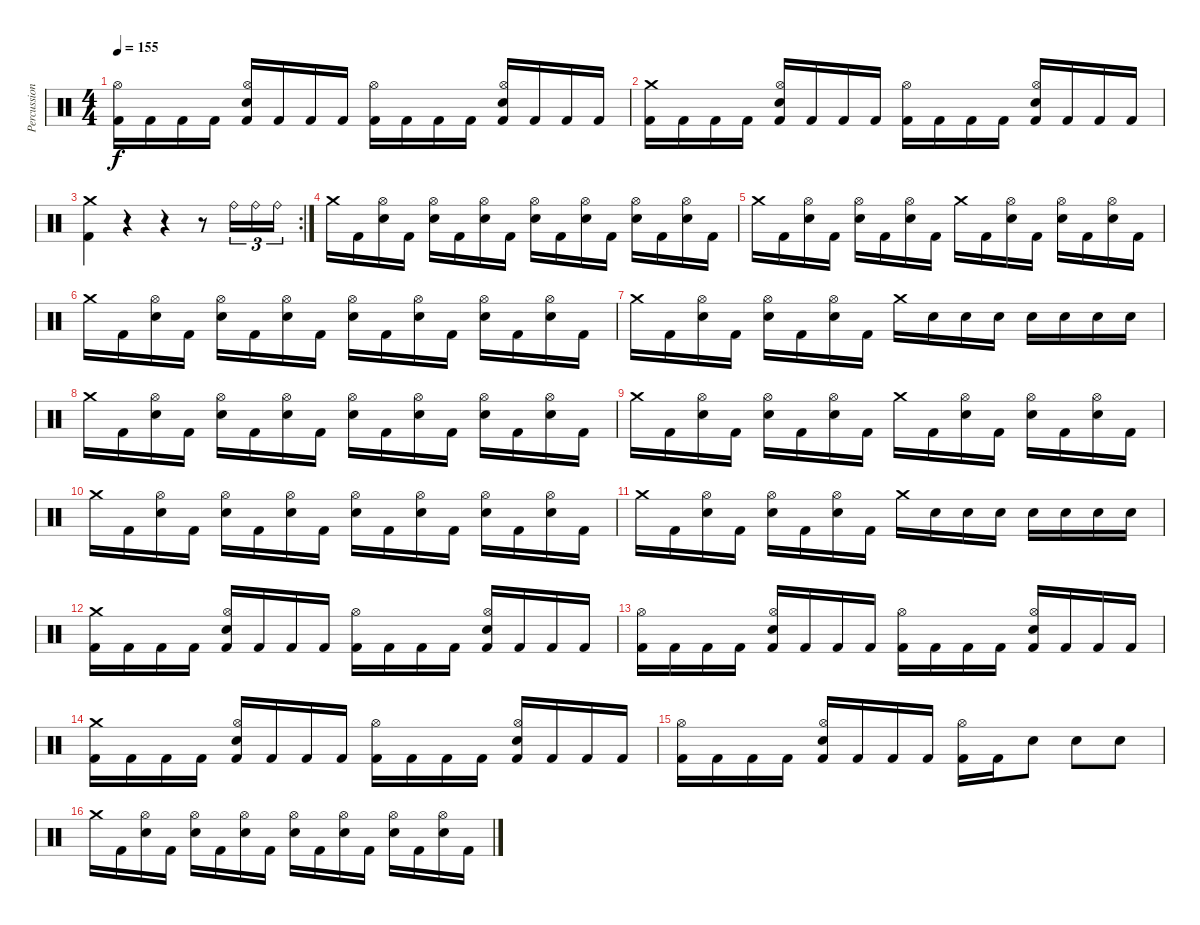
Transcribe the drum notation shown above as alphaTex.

\track ("Percussion" "Percussion") {instrument percussion}
\staff {score}
\articulation defaults
\ts (4 4)
\tempo 155
\clef neutral
\ks c
("Kick (hit) 2" "Hi-Hat (open)").16{dy f} "Kick (hit) 2".16 "Kick (hit) 2".16 "Kick (hit) 2".16 ("Kick (hit) 2" "Snare (hit) 2" "Hi-Hat (open)").16 "Kick (hit) 2".16 "Kick (hit) 2".16 "Kick (hit) 2".16 ("Kick (hit) 2" "Hi-Hat (open)").16 "Kick (hit) 2".16 "Kick (hit) 2".16 "Kick (hit) 2".16 ("Kick (hit) 2" "Snare (hit) 2" "Hi-Hat (open)").16 "Kick (hit) 2".16 "Kick (hit) 2".16 "Kick (hit) 2".16 |
("Kick (hit) 2" "Crash medium (hit)").16 "Kick (hit) 2".16 "Kick (hit) 2".16 "Kick (hit) 2".16 ("Kick (hit) 2" "Snare (hit) 2" "Hi-Hat (open)").16 "Kick (hit) 2".16 "Kick (hit) 2".16 "Kick (hit) 2".16 ("Kick (hit) 2" "Hi-Hat (open)").16 "Kick (hit) 2".16 "Kick (hit) 2".16 "Kick (hit) 2".16 ("Kick (hit) 2" "Snare (hit) 2" "Hi-Hat (open)").16 "Kick (hit) 2".16 "Kick (hit) 2".16 "Kick (hit) 2".16 |
\rc 2
("Kick (hit) 2" "Crash medium (hit)").4 r.4 r.4 r.8 "Ride (bell)".16{tu (3 2)} "Ride (bell)".16{tu (3 2)} "Ride (bell)".16{tu (3 2)} |
"Crash medium (hit)".16 "Kick (hit) 2".16 ("Snare (hit) 2" "Hi-Hat (open)").16 "Kick (hit) 2".16 ("Snare (hit) 2" "Hi-Hat (open)").16 "Kick (hit) 2".16 ("Snare (hit) 2" "Hi-Hat (open)").16 "Kick (hit) 2".16 ("Snare (hit) 2" "Hi-Hat (open)").16 "Kick (hit) 2".16 ("Snare (hit) 2" "Hi-Hat (open)").16 "Kick (hit) 2".16 ("Snare (hit) 2" "Hi-Hat (open)").16 "Kick (hit) 2".16 ("Snare (hit) 2" "Hi-Hat (open)").16 "Kick (hit) 2".16 |
"Crash medium (hit)".16 "Kick (hit) 2".16 ("Snare (hit) 2" "Hi-Hat (open)").16 "Kick (hit) 2".16 ("Snare (hit) 2" "Hi-Hat (open)").16 "Kick (hit) 2".16 ("Snare (hit) 2" "Hi-Hat (open)").16 "Kick (hit) 2".16 "Crash medium (hit)".16 "Kick (hit) 2".16 ("Snare (hit) 2" "Hi-Hat (open)").16 "Kick (hit) 2".16 ("Snare (hit) 2" "Hi-Hat (open)").16 "Kick (hit) 2".16 ("Snare (hit) 2" "Hi-Hat (open)").16 "Kick (hit) 2".16 |
"Crash medium (hit)".16 "Kick (hit) 2".16 ("Snare (hit) 2" "Hi-Hat (open)").16 "Kick (hit) 2".16 ("Snare (hit) 2" "Hi-Hat (open)").16 "Kick (hit) 2".16 ("Snare (hit) 2" "Hi-Hat (open)").16 "Kick (hit) 2".16 ("Snare (hit) 2" "Hi-Hat (open)").16 "Kick (hit) 2".16 ("Snare (hit) 2" "Hi-Hat (open)").16 "Kick (hit) 2".16 ("Snare (hit) 2" "Hi-Hat (open)").16 "Kick (hit) 2".16 ("Snare (hit) 2" "Hi-Hat (open)").16 "Kick (hit) 2".16 |
"Crash medium (hit)".16 "Kick (hit) 2".16 ("Snare (hit) 2" "Hi-Hat (open)").16 "Kick (hit) 2".16 ("Snare (hit) 2" "Hi-Hat (open)").16 "Kick (hit) 2".16 ("Snare (hit) 2" "Hi-Hat (open)").16 "Kick (hit) 2".16 "Crash medium (hit)".16 "Snare (hit) 2".16 "Snare (hit) 2".16 "Snare (hit) 2".16 "Snare (hit) 2".16 "Snare (hit) 2".16 "Snare (hit) 2".16 "Snare (hit) 2".16 |
"Crash medium (hit)".16 "Kick (hit) 2".16 ("Snare (hit) 2" "Hi-Hat (open)").16 "Kick (hit) 2".16 ("Snare (hit) 2" "Hi-Hat (open)").16 "Kick (hit) 2".16 ("Snare (hit) 2" "Hi-Hat (open)").16 "Kick (hit) 2".16 ("Snare (hit) 2" "Hi-Hat (open)").16 "Kick (hit) 2".16 ("Snare (hit) 2" "Hi-Hat (open)").16 "Kick (hit) 2".16 ("Snare (hit) 2" "Hi-Hat (open)").16 "Kick (hit) 2".16 ("Snare (hit) 2" "Hi-Hat (open)").16 "Kick (hit) 2".16 |
"Crash medium (hit)".16 "Kick (hit) 2".16 ("Snare (hit) 2" "Hi-Hat (open)").16 "Kick (hit) 2".16 ("Snare (hit) 2" "Hi-Hat (open)").16 "Kick (hit) 2".16 ("Snare (hit) 2" "Hi-Hat (open)").16 "Kick (hit) 2".16 "Crash medium (hit)".16 "Kick (hit) 2".16 ("Snare (hit) 2" "Hi-Hat (open)").16 "Kick (hit) 2".16 ("Snare (hit) 2" "Hi-Hat (open)").16 "Kick (hit) 2".16 ("Snare (hit) 2" "Hi-Hat (open)").16 "Kick (hit) 2".16 |
"Crash medium (hit)".16 "Kick (hit) 2".16 ("Snare (hit) 2" "Hi-Hat (open)").16 "Kick (hit) 2".16 ("Snare (hit) 2" "Hi-Hat (open)").16 "Kick (hit) 2".16 ("Snare (hit) 2" "Hi-Hat (open)").16 "Kick (hit) 2".16 ("Snare (hit) 2" "Hi-Hat (open)").16 "Kick (hit) 2".16 ("Snare (hit) 2" "Hi-Hat (open)").16 "Kick (hit) 2".16 ("Snare (hit) 2" "Hi-Hat (open)").16 "Kick (hit) 2".16 ("Snare (hit) 2" "Hi-Hat (open)").16 "Kick (hit) 2".16 |
"Crash medium (hit)".16 "Kick (hit) 2".16 ("Snare (hit) 2" "Hi-Hat (open)").16 "Kick (hit) 2".16 ("Snare (hit) 2" "Hi-Hat (open)").16 "Kick (hit) 2".16 ("Snare (hit) 2" "Hi-Hat (open)").16 "Kick (hit) 2".16 "Crash medium (hit)".16 "Snare (hit) 2".16 "Snare (hit) 2".16 "Snare (hit) 2".16 "Snare (hit) 2".16 "Snare (hit) 2".16 "Snare (hit) 2".16 "Snare (hit) 2".16 |
("Kick (hit) 2" "Crash medium (hit)").16 "Kick (hit) 2".16 "Kick (hit) 2".16 "Kick (hit) 2".16 ("Kick (hit) 2" "Snare (hit) 2" "Hi-Hat (open)").16 "Kick (hit) 2".16 "Kick (hit) 2".16 "Kick (hit) 2".16 ("Kick (hit) 2" "Hi-Hat (open)").16 "Kick (hit) 2".16 "Kick (hit) 2".16 "Kick (hit) 2".16 ("Kick (hit) 2" "Snare (hit) 2" "Hi-Hat (open)").16 "Kick (hit) 2".16 "Kick (hit) 2".16 "Kick (hit) 2".16 |
("Kick (hit) 2" "Hi-Hat (open)").16 "Kick (hit) 2".16 "Kick (hit) 2".16 "Kick (hit) 2".16 ("Kick (hit) 2" "Snare (hit) 2" "Hi-Hat (open)").16 "Kick (hit) 2".16 "Kick (hit) 2".16 "Kick (hit) 2".16 ("Kick (hit) 2" "Hi-Hat (open)").16 "Kick (hit) 2".16 "Kick (hit) 2".16 "Kick (hit) 2".16 ("Kick (hit) 2" "Snare (hit) 2" "Hi-Hat (open)").16 "Kick (hit) 2".16 "Kick (hit) 2".16 "Kick (hit) 2".16 |
("Kick (hit) 2" "Crash medium (hit)").16 "Kick (hit) 2".16 "Kick (hit) 2".16 "Kick (hit) 2".16 ("Kick (hit) 2" "Snare (hit) 2" "Hi-Hat (open)").16 "Kick (hit) 2".16 "Kick (hit) 2".16 "Kick (hit) 2".16 ("Kick (hit) 2" "Hi-Hat (open)").16 "Kick (hit) 2".16 "Kick (hit) 2".16 "Kick (hit) 2".16 ("Kick (hit) 2" "Snare (hit) 2" "Hi-Hat (open)").16 "Kick (hit) 2".16 "Kick (hit) 2".16 "Kick (hit) 2".16 |
("Kick (hit) 2" "Hi-Hat (open)").16 "Kick (hit) 2".16 "Kick (hit) 2".16 "Kick (hit) 2".16 ("Kick (hit) 2" "Snare (hit) 2" "Hi-Hat (open)").16 "Kick (hit) 2".16 "Kick (hit) 2".16 "Kick (hit) 2".16 ("Kick (hit) 2" "Hi-Hat (open)").16 "Kick (hit) 2".16 "Snare (hit) 2".8 "Snare (hit) 2".8 "Snare (hit) 2".8 |
"Crash medium (hit)".16 "Kick (hit) 2".16 ("Snare (hit) 2" "Hi-Hat (open)").16 "Kick (hit) 2".16 ("Snare (hit) 2" "Hi-Hat (open)").16 "Kick (hit) 2".16 ("Snare (hit) 2" "Hi-Hat (open)").16 "Kick (hit) 2".16 ("Snare (hit) 2" "Hi-Hat (open)").16 "Kick (hit) 2".16 ("Snare (hit) 2" "Hi-Hat (open)").16 "Kick (hit) 2".16 ("Snare (hit) 2" "Hi-Hat (open)").16 "Kick (hit) 2".16 ("Snare (hit) 2" "Hi-Hat (open)").16 "Kick (hit) 2".16
